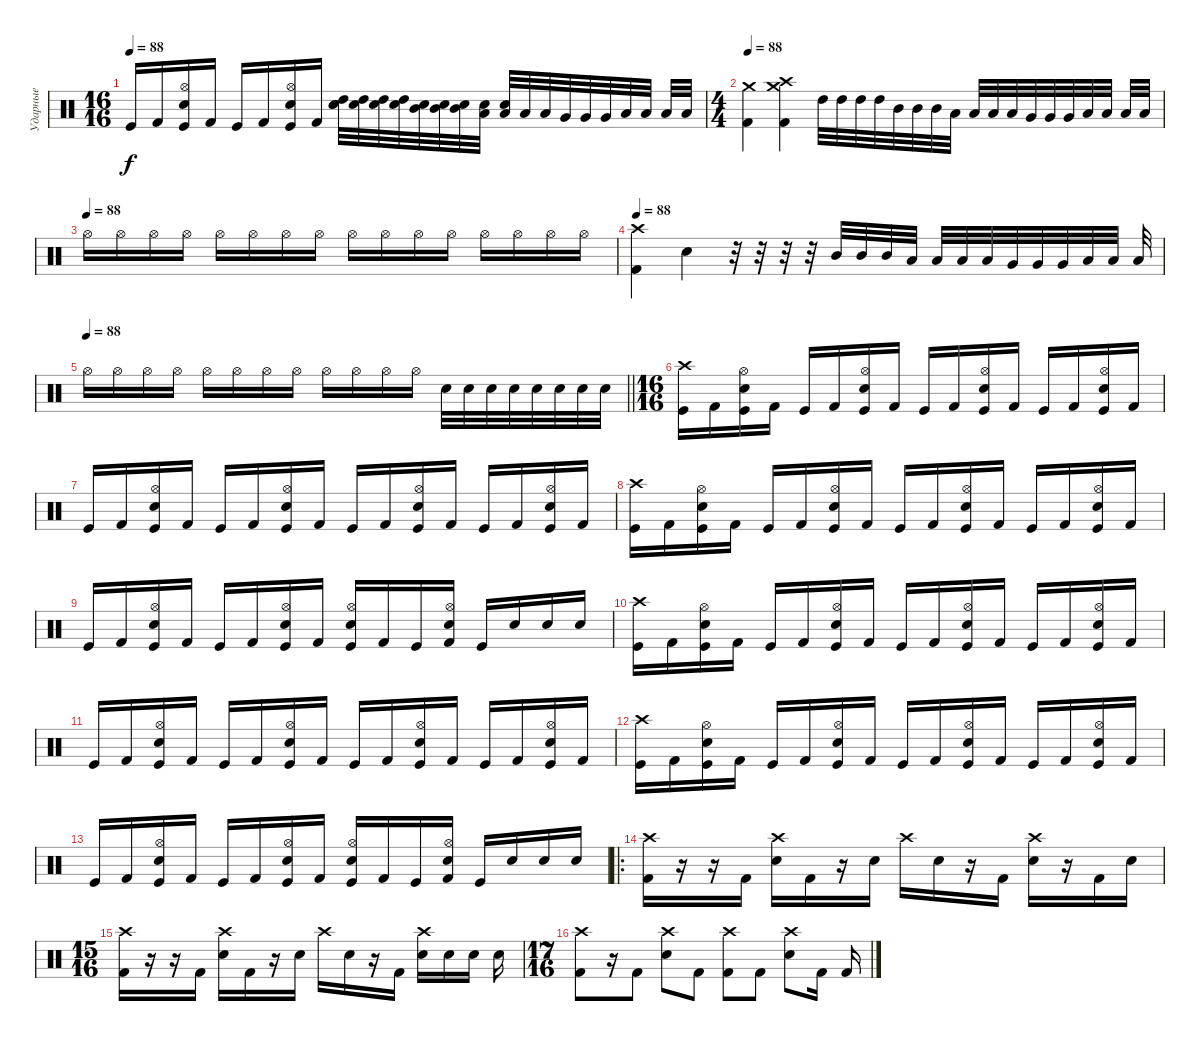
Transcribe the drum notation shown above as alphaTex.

\track ("Ударные" "Ударные") {instrument percussion}
\staff {score}
\articulation defaults
\ts (16 16)
\tempo 88
\clef neutral
\ks c "Kick (hit)".16{dy f} "Kick (hit) 2".16
("Hi-Hat (open)" "Kick (hit)" "Electric Snare (hit)").16 "Kick (hit) 2".16 "Kick (hit)".16 "Kick (hit) 2".16 ("Hi-Hat (open)" "Kick (hit)" "Electric Snare (hit)").16 "Kick (hit) 2".16 ("Snare (hit) 2" "High Tom (hit)" "Electric Snare (hit)").32 ("High Tom (hit)" "Electric Snare (hit)").32 ("High Tom (hit)" "Electric Snare (hit)").32 ("High Tom (hit)" "Electric Snare (hit)").32 ("Mid Tom (hit)" "Electric Snare (hit)").32 ("Mid Tom (hit)" "Electric Snare (hit)").32 ("Mid Tom (hit)" "Electric Snare (hit)").32 ("Low Tom (hit)" "Electric Snare (hit)").32 ("Low Tom (hit)" "Electric Snare (hit)").32 "Low Tom (hit)".32 "Low Tom (hit)".32 "Very Low Tom (hit)".32 "Very Low Tom (hit)".32 "Very Low Tom (hit)".32 "Low Floor Tom (hit)".32 "Low Floor Tom (hit)".32 "Low Floor Tom (hit)".32 "Low Floor Tom (hit)".32 |
\ts (4 4)
\tempo 88
("Crash medium (hit)" "Kick (hit) 2").4 ("Kick (hit) 2" "Crash medium (hit)" "Crash high (hit)").4 "High Tom (hit)".32 "High Tom (hit)".32 "High Tom (hit)".32 "High Tom (hit)".32 "Mid Tom (hit)".32 "Mid Tom (hit)".32 "Mid Tom (hit)".32 "Low Tom (hit)".32 "Low Tom (hit)".32 "Low Tom (hit)".32 "Low Tom (hit)".32 "Very Low Tom (hit)".32 "Very Low Tom (hit)".32 "Very Low Tom (hit)".32 "Low Floor Tom (hit)".32 "Low Floor Tom (hit)".32 "Low Floor Tom (hit)".32 "Low Floor Tom (hit)".32 |
\tempo (88)
"Hi-Hat (open)".16 "Hi-Hat (open)".16 "Hi-Hat (open)".16 "Hi-Hat (open)".16 "Hi-Hat (open)".16 "Hi-Hat (open)".16 "Hi-Hat (open)".16 "Hi-Hat (open)".16 "Hi-Hat (open)".16 "Hi-Hat (open)".16 "Hi-Hat (open)".16 "Hi-Hat (open)".16 "Hi-Hat (open)".16 "Hi-Hat (open)".16 "Hi-Hat (open)".16 "Hi-Hat (open)".16 |
\tempo 88
("Crash high (hit)" "Kick (hit) 2").4 "Electric Snare (hit)".4 r.32 r.32 r.32 r.32 "Mid Tom (hit)".32 "Mid Tom (hit)".32 "Mid Tom (hit)".32 "Low Tom (hit)".32 "Low Tom (hit)".32 "Low Tom (hit)".32 "Low Tom (hit)".32 "Very Low Tom (hit)".32 "Very Low Tom (hit)".32 "Very Low Tom (hit)".32 "Low Floor Tom (hit)".32 "Low Floor Tom (hit)".32 "Low Floor Tom (hit)".32 |
\tempo 88
\barLineRight lightlight "Hi-Hat (open)".16 "Hi-Hat (open)".16 "Hi-Hat (open)".16 "Hi-Hat (open)".16 "Hi-Hat (open)".16 "Hi-Hat (open)".16 "Hi-Hat (open)".16 "Hi-Hat (open)".16 "Hi-Hat (open)".16 "Hi-Hat (open)".16 "Hi-Hat (open)".16 "Hi-Hat (open)".16 "Electric Snare (hit)".32 "Electric Snare (hit)".32 "Electric Snare (hit)".32 "Electric Snare (hit)".32 "Electric Snare (hit)".32 "Electric Snare (hit)".32 "Electric Snare (hit)".32 "Electric Snare (hit)".32
|
\ts (16 16)
("Crash high (hit)" "Kick (hit)").16 "Kick (hit) 2".16 ("Hi-Hat (open)" "Kick (hit)" "Electric Snare (hit)").16 "Kick (hit) 2".16 "Kick (hit)".16 "Kick (hit) 2".16 ("Hi-Hat (open)" "Kick (hit)" "Electric Snare (hit)").16 "Kick (hit) 2".16 "Kick (hit)".16 "Kick (hit) 2".16 ("Hi-Hat (open)" "Kick (hit)" "Electric Snare (hit)").16 "Kick (hit) 2".16 "Kick (hit)".16 "Kick (hit) 2".16 ("Hi-Hat (open)" "Kick (hit)" "Electric Snare (hit)").16 "Kick (hit) 2".16 |
"Kick (hit)".16 "Kick (hit) 2".16 ("Hi-Hat (open)" "Kick (hit)" "Electric Snare (hit)").16 "Kick (hit) 2".16 "Kick (hit)".16 "Kick (hit) 2".16 ("Hi-Hat (open)" "Kick (hit)" "Electric Snare (hit)").16 "Kick (hit) 2".16 "Kick (hit)".16 "Kick (hit) 2".16 ("Electric Snare (hit)" "Kick (hit)" "Hi-Hat (open)").16 "Kick (hit) 2".16 "Kick (hit)".16 "Kick (hit) 2".16 ("Electric Snare (hit)" "Kick (hit)" "Hi-Hat (open)").16 "Kick (hit) 2".16 |
("Crash high (hit)" "Kick (hit)").16 "Kick (hit) 2".16 ("Hi-Hat (open)" "Kick (hit)" "Electric Snare (hit)").16 "Kick (hit) 2".16 "Kick (hit)".16 "Kick (hit) 2".16 ("Hi-Hat (open)" "Kick (hit)" "Electric Snare (hit)").16 "Kick (hit) 2".16 "Kick (hit)".16 "Kick (hit) 2".16 ("Hi-Hat (open)" "Kick (hit)" "Electric Snare (hit)").16 "Kick (hit) 2".16 "Kick (hit)".16 "Kick (hit) 2".16 ("Hi-Hat (open)" "Kick (hit)" "Electric Snare (hit)").16 "Kick (hit) 2".16 |
"Kick (hit)".16 "Kick (hit) 2".16 ("Hi-Hat (open)" "Kick (hit)" "Electric Snare (hit)").16 "Kick (hit) 2".16 "Kick (hit)".16 "Kick (hit) 2".16 ("Hi-Hat (open)" "Kick (hit)" "Electric Snare (hit)").16 "Kick (hit) 2".16 ("Electric Snare (hit)" "Kick (hit)" "Hi-Hat (open)").16 "Kick (hit) 2".16 "Kick (hit)".16 ("Electric Snare (hit)" "Kick (hit) 2" "Hi-Hat (open)").16 "Kick (hit)".16 "Snare (hit) 2".16 "Snare (hit) 2".16 "Snare (hit) 2".16 |
("Crash high (hit)" "Kick (hit)").16 "Kick (hit) 2".16 ("Hi-Hat (open)" "Kick (hit)" "Electric Snare (hit)").16 "Kick (hit) 2".16 "Kick (hit)".16 "Kick (hit) 2".16 ("Hi-Hat (open)" "Kick (hit)" "Electric Snare (hit)").16 "Kick (hit) 2".16 "Kick (hit)".16 "Kick (hit) 2".16 ("Hi-Hat (open)" "Kick (hit)" "Electric Snare (hit)").16 "Kick (hit) 2".16 "Kick (hit)".16 "Kick (hit) 2".16 ("Hi-Hat (open)" "Kick (hit)" "Electric Snare (hit)").16 "Kick (hit) 2".16 |
"Kick (hit)".16 "Kick (hit) 2".16 ("Hi-Hat (open)" "Kick (hit)" "Electric Snare (hit)").16 "Kick (hit) 2".16 "Kick (hit)".16 "Kick (hit) 2".16 ("Hi-Hat (open)" "Kick (hit)" "Electric Snare (hit)").16 "Kick (hit) 2".16 "Kick (hit)".16 "Kick (hit) 2".16 ("Electric Snare (hit)" "Kick (hit)" "Hi-Hat (open)").16 "Kick (hit) 2".16 "Kick (hit)".16 "Kick (hit) 2".16 ("Electric Snare (hit)" "Kick (hit)" "Hi-Hat (open)").16 "Kick (hit) 2".16 |
("Crash high (hit)" "Kick (hit)").16 "Kick (hit) 2".16 ("Hi-Hat (open)" "Kick (hit)" "Electric Snare (hit)").16 "Kick (hit) 2".16 "Kick (hit)".16 "Kick (hit) 2".16 ("Hi-Hat (open)" "Kick (hit)" "Electric Snare (hit)").16 "Kick (hit) 2".16 "Kick (hit)".16 "Kick (hit) 2".16 ("Hi-Hat (open)" "Kick (hit)" "Electric Snare (hit)").16 "Kick (hit) 2".16 "Kick (hit)".16 "Kick (hit) 2".16 ("Hi-Hat (open)" "Kick (hit)" "Electric Snare (hit)").16 "Kick (hit) 2".16 |
"Kick (hit)".16 "Kick (hit) 2".16 ("Hi-Hat (open)" "Kick (hit)" "Electric Snare (hit)").16 "Kick (hit) 2".16 "Kick (hit)".16 "Kick (hit) 2".16 ("Hi-Hat (open)" "Kick (hit)" "Electric Snare (hit)").16 "Kick (hit) 2".16 ("Electric Snare (hit)" "Kick (hit)" "Hi-Hat (open)").16 "Kick (hit) 2".16 "Kick (hit)".16 ("Electric Snare (hit)" "Kick (hit) 2" "Hi-Hat (open)").16 "Kick (hit)".16 "Snare (hit) 2".16 "Snare (hit) 2".16 "Snare (hit) 2".16 |
\ro
("Crash high (hit)" "Kick (hit) 2").16 r.16 r.16 "Kick (hit) 2".16 ("Crash high (hit)" "Electric Snare (hit)").16 "Kick (hit) 2".16 r.16 "Electric Snare (hit)".16 "Crash high (hit)".16 "Electric Snare (hit)".16 r.16 "Kick (hit) 2".16 ("Crash high (hit)" "Electric Snare (hit)").16 r.16 "Kick (hit) 2".16 "Electric Snare (hit)".16 |
\ts (15 16)
("Crash high (hit)" "Kick (hit) 2").16 r.16 r.16 "Kick (hit) 2".16 ("Crash high (hit)" "Electric Snare (hit)").16 "Kick (hit) 2".16 r.16 "Electric Snare (hit)".16 "Crash high (hit)".16 "Electric Snare (hit)".16 r.16 "Kick (hit) 2".16 ("Crash high (hit)" "Electric Snare (hit)").16 "Electric Snare (hit)".16 "Electric Snare (hit)".16 "Electric Snare (hit)".16 |
\ts (17 16)
("Crash high (hit)" "Kick (hit) 2").8 r.16 "Kick (hit) 2".8 ("Crash high (hit)" "Electric Snare (hit)").8 "Kick (hit) 2".8 ("Crash high (hit)" "Kick (hit) 2").8 "Kick (hit) 2".8 ("Crash high (hit)" "Electric Snare (hit)").8 "Kick (hit) 2".16 "Kick (hit) 2".16
